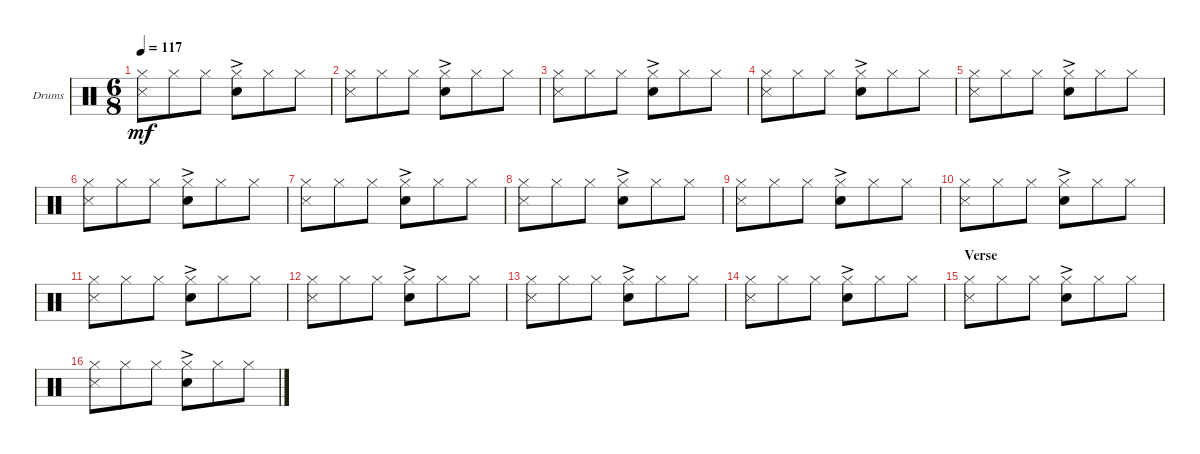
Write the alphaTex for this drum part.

\defaultSystemsLayout 4
\bracketExtendMode groupsimilarinstruments
\firstSystemTrackNameOrientation horizontal
\otherSystemsTrackNameOrientation horizontal
\track ("Drumkit" "Drums") {instrument percussion}
\staff {score}
\articulation defaults
\ts (6 8)
\tempo 117
\clef neutral
\ks c
("Hi-Hat (closed)" "Snare (side stick) 3").8{dy mf} "Hi-Hat (closed)".8 "Hi-Hat (closed)".8 ("Hi-Hat (closed)" "Snare (hit) 2"{ac}).8 "Hi-Hat (closed)".8 "Hi-Hat (closed)".8 |
("Hi-Hat (closed)" "Snare (side stick) 3").8 "Hi-Hat (closed)".8 "Hi-Hat (closed)".8 ("Hi-Hat (closed)" "Snare (hit) 2"{ac}).8 "Hi-Hat (closed)".8 "Hi-Hat (closed)".8 |
("Hi-Hat (closed)" "Snare (side stick) 3").8 "Hi-Hat (closed)".8 "Hi-Hat (closed)".8 ("Hi-Hat (closed)" "Snare (hit) 2"{ac}).8 "Hi-Hat (closed)".8 "Hi-Hat (closed)".8 |
("Hi-Hat (closed)" "Snare (side stick) 3").8 "Hi-Hat (closed)".8 "Hi-Hat (closed)".8 ("Hi-Hat (closed)" "Snare (hit) 2"{ac}).8 "Hi-Hat (closed)".8 "Hi-Hat (closed)".8 |
("Hi-Hat (closed)" "Snare (side stick) 3").8 "Hi-Hat (closed)".8 "Hi-Hat (closed)".8 ("Hi-Hat (closed)" "Snare (hit) 2"{ac}).8 "Hi-Hat (closed)".8 "Hi-Hat (closed)".8 |
("Hi-Hat (closed)" "Snare (side stick) 3").8 "Hi-Hat (closed)".8 "Hi-Hat (closed)".8 ("Hi-Hat (closed)" "Snare (hit) 2"{ac}).8 "Hi-Hat (closed)".8 "Hi-Hat (closed)".8 |
("Hi-Hat (closed)" "Snare (side stick) 3").8 "Hi-Hat (closed)".8 "Hi-Hat (closed)".8 ("Hi-Hat (closed)" "Snare (hit) 2"{ac}).8 "Hi-Hat (closed)".8 "Hi-Hat (closed)".8 |
("Hi-Hat (closed)" "Snare (side stick) 3").8 "Hi-Hat (closed)".8 "Hi-Hat (closed)".8 ("Hi-Hat (closed)" "Snare (hit) 2"{ac}).8 "Hi-Hat (closed)".8 "Hi-Hat (closed)".8 |
("Hi-Hat (closed)" "Snare (side stick) 3").8 "Hi-Hat (closed)".8 "Hi-Hat (closed)".8 ("Hi-Hat (closed)" "Snare (hit) 2"{ac}).8 "Hi-Hat (closed)".8 "Hi-Hat (closed)".8 |
("Hi-Hat (closed)" "Snare (side stick) 3").8 "Hi-Hat (closed)".8 "Hi-Hat (closed)".8 ("Hi-Hat (closed)" "Snare (hit) 2"{ac}).8 "Hi-Hat (closed)".8 "Hi-Hat (closed)".8 |
("Hi-Hat (closed)" "Snare (side stick) 3").8 "Hi-Hat (closed)".8 "Hi-Hat (closed)".8 ("Hi-Hat (closed)" "Snare (hit) 2"{ac}).8 "Hi-Hat (closed)".8 "Hi-Hat (closed)".8 |
("Hi-Hat (closed)" "Snare (side stick) 3").8 "Hi-Hat (closed)".8 "Hi-Hat (closed)".8 ("Hi-Hat (closed)" "Snare (hit) 2"{ac}).8 "Hi-Hat (closed)".8 "Hi-Hat (closed)".8 |
("Hi-Hat (closed)" "Snare (side stick) 3").8 "Hi-Hat (closed)".8 "Hi-Hat (closed)".8 ("Hi-Hat (closed)" "Snare (hit) 2"{ac}).8 "Hi-Hat (closed)".8 "Hi-Hat (closed)".8 |
("Hi-Hat (closed)" "Snare (side stick) 3").8 "Hi-Hat (closed)".8 "Hi-Hat (closed)".8 ("Hi-Hat (closed)" "Snare (hit) 2"{ac}).8 "Hi-Hat (closed)".8 "Hi-Hat (closed)".8 |
\section ("" "Verse")
("Hi-Hat (closed)" "Snare (side stick) 3").8 "Hi-Hat (closed)".8 "Hi-Hat (closed)".8 ("Hi-Hat (closed)" "Snare (hit) 2"{ac}).8 "Hi-Hat (closed)".8 "Hi-Hat (closed)".8 |
("Hi-Hat (closed)" "Snare (side stick) 3").8 "Hi-Hat (closed)".8 "Hi-Hat (closed)".8 ("Hi-Hat (closed)" "Snare (hit) 2"{ac}).8 "Hi-Hat (closed)".8 "Hi-Hat (closed)".8
